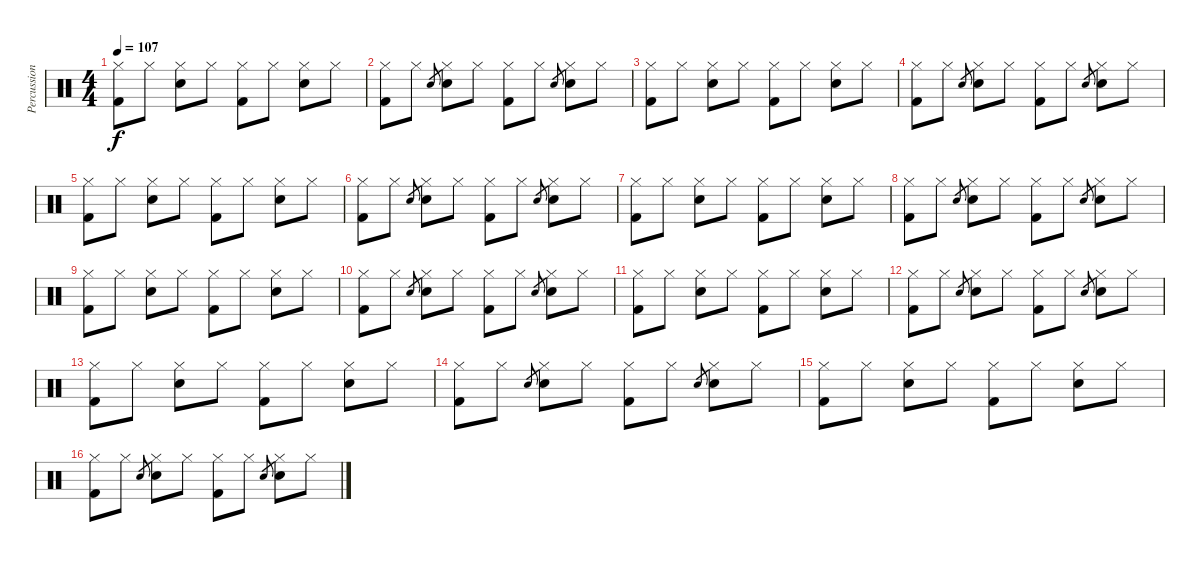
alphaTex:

\track ("Percussion" "Percussion") {instrument percussion}
\staff {score}
\articulation defaults
\ts (4 4)
\tempo 107
\clef neutral
\ks c
("Hi-Hat (closed)" "Kick (hit) 2").8{dy f} "Hi-Hat (closed)".8 ("Hi-Hat (closed)" "Electric Snare (hit)").8 "Hi-Hat (closed)".8 ("Hi-Hat (closed)" "Kick (hit) 2").8 "Hi-Hat (closed)".8 ("Hi-Hat (closed)" "Electric Snare (hit)").8 "Hi-Hat (closed)".8 |
("Hi-Hat (closed)" "Kick (hit) 2").8 "Hi-Hat (closed)".8 "Electric Snare (hit)".8{gr} ("Hi-Hat (closed)" "Electric Snare (hit)").8 "Hi-Hat (closed)".8 ("Hi-Hat (closed)" "Kick (hit) 2").8 "Hi-Hat (closed)".8 "Electric Snare (hit)".8{gr} ("Hi-Hat (closed)" "Electric Snare (hit)").8 "Hi-Hat (closed)".8 |
("Hi-Hat (closed)" "Kick (hit) 2").8 "Hi-Hat (closed)".8 ("Hi-Hat (closed)" "Electric Snare (hit)").8 "Hi-Hat (closed)".8 ("Hi-Hat (closed)" "Kick (hit) 2").8 "Hi-Hat (closed)".8 ("Hi-Hat (closed)" "Electric Snare (hit)").8 "Hi-Hat (closed)".8 |
("Hi-Hat (closed)" "Kick (hit) 2").8 "Hi-Hat (closed)".8 "Electric Snare (hit)".8{gr} ("Hi-Hat (closed)" "Electric Snare (hit)").8 "Hi-Hat (closed)".8 ("Hi-Hat (closed)" "Kick (hit) 2").8 "Hi-Hat (closed)".8 "Electric Snare (hit)".8{gr} ("Hi-Hat (closed)" "Electric Snare (hit)").8 "Hi-Hat (closed)".8 |
("Hi-Hat (closed)" "Kick (hit) 2").8 "Hi-Hat (closed)".8 ("Hi-Hat (closed)" "Electric Snare (hit)").8 "Hi-Hat (closed)".8 ("Hi-Hat (closed)" "Kick (hit) 2").8 "Hi-Hat (closed)".8 ("Hi-Hat (closed)" "Electric Snare (hit)").8 "Hi-Hat (closed)".8 |
("Hi-Hat (closed)" "Kick (hit) 2").8 "Hi-Hat (closed)".8 "Electric Snare (hit)".8{gr} ("Hi-Hat (closed)" "Electric Snare (hit)").8 "Hi-Hat (closed)".8 ("Hi-Hat (closed)" "Kick (hit) 2").8 "Hi-Hat (closed)".8 "Electric Snare (hit)".8{gr} ("Hi-Hat (closed)" "Electric Snare (hit)").8 "Hi-Hat (closed)".8 |
("Hi-Hat (closed)" "Kick (hit) 2").8 "Hi-Hat (closed)".8 ("Hi-Hat (closed)" "Electric Snare (hit)").8 "Hi-Hat (closed)".8 ("Hi-Hat (closed)" "Kick (hit) 2").8 "Hi-Hat (closed)".8 ("Hi-Hat (closed)" "Electric Snare (hit)").8 "Hi-Hat (closed)".8 |
("Hi-Hat (closed)" "Kick (hit) 2").8 "Hi-Hat (closed)".8 "Electric Snare (hit)".8{gr} ("Hi-Hat (closed)" "Electric Snare (hit)").8 "Hi-Hat (closed)".8 ("Hi-Hat (closed)" "Kick (hit) 2").8 "Hi-Hat (closed)".8 "Electric Snare (hit)".8{gr} ("Hi-Hat (closed)" "Electric Snare (hit)").8 "Hi-Hat (closed)".8 |
("Hi-Hat (closed)" "Kick (hit) 2").8 "Hi-Hat (closed)".8 ("Hi-Hat (closed)" "Electric Snare (hit)").8 "Hi-Hat (closed)".8 ("Hi-Hat (closed)" "Kick (hit) 2").8 "Hi-Hat (closed)".8 ("Hi-Hat (closed)" "Electric Snare (hit)").8 "Hi-Hat (closed)".8 |
("Hi-Hat (closed)" "Kick (hit) 2").8 "Hi-Hat (closed)".8 "Electric Snare (hit)".8{gr} ("Hi-Hat (closed)" "Electric Snare (hit)").8 "Hi-Hat (closed)".8 ("Hi-Hat (closed)" "Kick (hit) 2").8 "Hi-Hat (closed)".8 "Electric Snare (hit)".8{gr} ("Hi-Hat (closed)" "Electric Snare (hit)").8 "Hi-Hat (closed)".8 |
("Hi-Hat (closed)" "Kick (hit) 2").8 "Hi-Hat (closed)".8 ("Hi-Hat (closed)" "Electric Snare (hit)").8 "Hi-Hat (closed)".8 ("Hi-Hat (closed)" "Kick (hit) 2").8 "Hi-Hat (closed)".8 ("Hi-Hat (closed)" "Electric Snare (hit)").8 "Hi-Hat (closed)".8 |
("Hi-Hat (closed)" "Kick (hit) 2").8 "Hi-Hat (closed)".8 "Electric Snare (hit)".8{gr} ("Hi-Hat (closed)" "Electric Snare (hit)").8 "Hi-Hat (closed)".8 ("Hi-Hat (closed)" "Kick (hit) 2").8 "Hi-Hat (closed)".8 "Electric Snare (hit)".8{gr} ("Hi-Hat (closed)" "Electric Snare (hit)").8 "Hi-Hat (closed)".8 |
("Hi-Hat (closed)" "Kick (hit) 2").8 "Hi-Hat (closed)".8 ("Hi-Hat (closed)" "Electric Snare (hit)").8 "Hi-Hat (closed)".8 ("Hi-Hat (closed)" "Kick (hit) 2").8 "Hi-Hat (closed)".8 ("Hi-Hat (closed)" "Electric Snare (hit)").8 "Hi-Hat (closed)".8 |
("Hi-Hat (closed)" "Kick (hit) 2").8 "Hi-Hat (closed)".8 "Electric Snare (hit)".8{gr} ("Hi-Hat (closed)" "Electric Snare (hit)").8 "Hi-Hat (closed)".8 ("Hi-Hat (closed)" "Kick (hit) 2").8 "Hi-Hat (closed)".8 "Electric Snare (hit)".8{gr} ("Hi-Hat (closed)" "Electric Snare (hit)").8 "Hi-Hat (closed)".8 |
("Hi-Hat (closed)" "Kick (hit) 2").8 "Hi-Hat (closed)".8 ("Hi-Hat (closed)" "Electric Snare (hit)").8 "Hi-Hat (closed)".8 ("Hi-Hat (closed)" "Kick (hit) 2").8 "Hi-Hat (closed)".8 ("Hi-Hat (closed)" "Electric Snare (hit)").8 "Hi-Hat (closed)".8 |
("Hi-Hat (closed)" "Kick (hit) 2").8 "Hi-Hat (closed)".8 "Electric Snare (hit)".8{gr} ("Hi-Hat (closed)" "Electric Snare (hit)").8 "Hi-Hat (closed)".8 ("Hi-Hat (closed)" "Kick (hit) 2").8 "Hi-Hat (closed)".8 "Electric Snare (hit)".8{gr} ("Hi-Hat (closed)" "Electric Snare (hit)").8 "Hi-Hat (closed)".8
